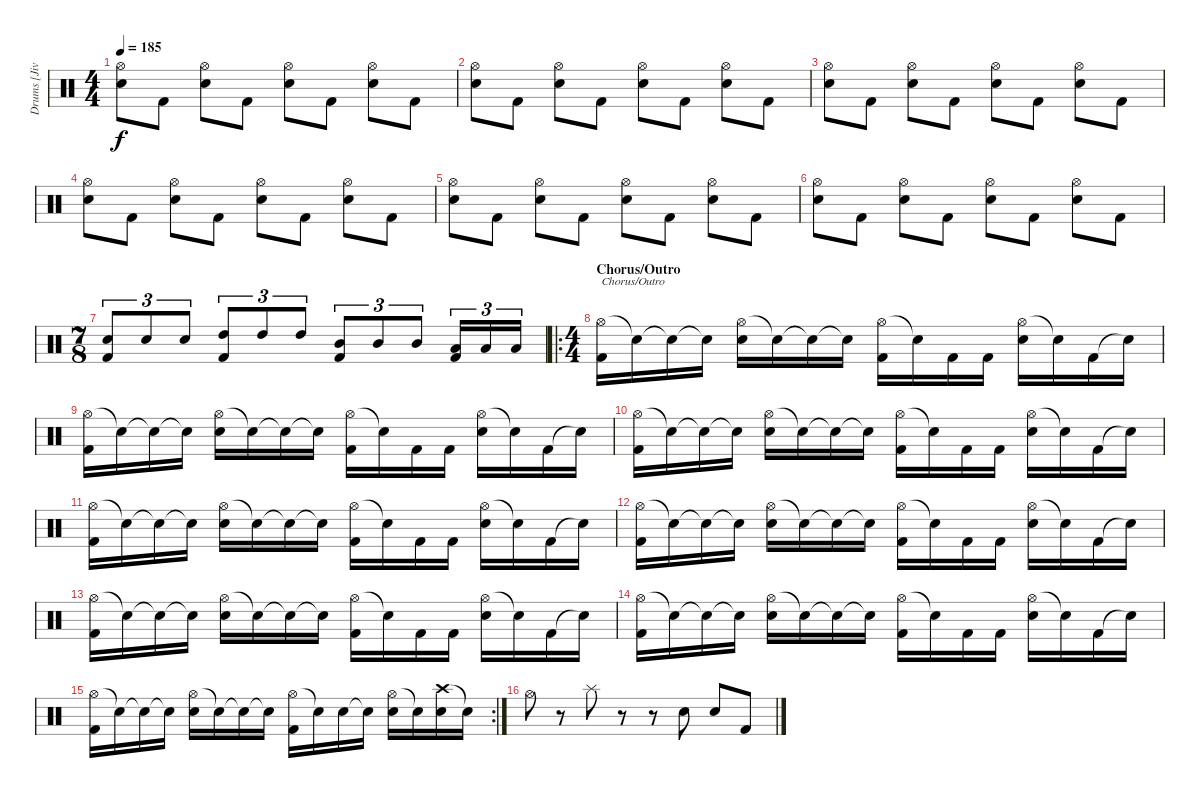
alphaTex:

\track ("Drums [Jivarp]" "Drums [Jiv") {instrument percussion}
\staff {score}
\articulation defaults
\ts (4 4)
\tempo 185
\clef neutral
\ks c
("Hi-Hat (open)" "Electric Snare (hit)").8{dy f} "Kick (hit) 2".8 ("Hi-Hat (open)" "Electric Snare (hit)").8 "Kick (hit) 2".8 ("Hi-Hat (open)" "Electric Snare (hit)").8 "Kick (hit) 2".8 ("Hi-Hat (open)" "Electric Snare (hit)").8 "Kick (hit) 2".8 |
("Hi-Hat (open)" "Electric Snare (hit)").8 "Kick (hit) 2".8 ("Hi-Hat (open)" "Electric Snare (hit)").8 "Kick (hit) 2".8 ("Hi-Hat (open)" "Electric Snare (hit)").8 "Kick (hit) 2".8 ("Hi-Hat (open)" "Electric Snare (hit)").8 "Kick (hit) 2".8 |
("Hi-Hat (open)" "Electric Snare (hit)").8 "Kick (hit) 2".8 ("Hi-Hat (open)" "Electric Snare (hit)").8 "Kick (hit) 2".8 ("Hi-Hat (open)" "Electric Snare (hit)").8 "Kick (hit) 2".8 ("Hi-Hat (open)" "Electric Snare (hit)").8 "Kick (hit) 2".8 |
("Hi-Hat (open)" "Electric Snare (hit)").8 "Kick (hit) 2".8 ("Hi-Hat (open)" "Electric Snare (hit)").8 "Kick (hit) 2".8 ("Hi-Hat (open)" "Electric Snare (hit)").8 "Kick (hit) 2".8 ("Hi-Hat (open)" "Electric Snare (hit)").8 "Kick (hit) 2".8 |
("Hi-Hat (open)" "Electric Snare (hit)").8 "Kick (hit) 2".8 ("Hi-Hat (open)" "Electric Snare (hit)").8 "Kick (hit) 2".8 ("Hi-Hat (open)" "Electric Snare (hit)").8 "Kick (hit) 2".8 ("Hi-Hat (open)" "Electric Snare (hit)").8 "Kick (hit) 2".8 |
("Hi-Hat (open)" "Electric Snare (hit)").8 "Kick (hit) 2".8 ("Hi-Hat (open)" "Electric Snare (hit)").8 "Kick (hit) 2".8 ("Hi-Hat (open)" "Electric Snare (hit)").8 "Kick (hit) 2".8 ("Hi-Hat (open)" "Electric Snare (hit)").8 "Kick (hit) 2".8 |
\ts (7 8)
("Electric Snare (hit)" "Kick (hit) 2").8{tu (3 2)} "Electric Snare (hit)".8{tu (3 2)} "Electric Snare (hit)".8{tu (3 2)} ("High Tom (hit)" "Kick (hit) 2").8{tu (3 2)} "High Tom (hit)".8{tu (3 2)} "High Tom (hit)".8{tu (3 2)} ("Mid Tom (hit)" "Kick (hit) 2").8{tu (3 2)} "Mid Tom (hit)".8{tu (3 2)} "Mid Tom (hit)".8{tu (3 2)} ("Low Tom (hit)" "Kick (hit) 2").16{tu (3 2)} "Low Tom (hit)".16{tu (3 2)} "Low Tom (hit)".16{tu (3 2)} |
\ro
\ts (4 4)
\section ("" "Chorus/Outro")
("Hi-Hat (open)" "Kick (hit) 2").16{txt "Chorus/Outro"} "Snare (hit)"{t}.16 "Snare (hit)"{t}.16 "Snare (hit)"{t}.16 ("Hi-Hat (open)" "Electric Snare (hit)").16 "Snare (hit)"{t}.16 "Snare (hit)"{t}.16 "Snare (hit)"{t}.16 ("Hi-Hat (open)" "Kick (hit) 2").16 "Snare (hit)"{t}.16 "Kick (hit) 2".16 "Kick (hit) 2".16 ("Hi-Hat (open)" "Electric Snare (hit)").16 "Snare (hit)"{t}.16 "Kick (hit) 2".16 "Snare (hit)"{t}.16 |
("Hi-Hat (open)" "Kick (hit) 2").16 "Snare (hit)"{t}.16 "Snare (hit)"{t}.16 "Snare (hit)"{t}.16 ("Hi-Hat (open)" "Electric Snare (hit)").16 "Snare (hit)"{t}.16 "Snare (hit)"{t}.16 "Snare (hit)"{t}.16 ("Hi-Hat (open)" "Kick (hit) 2").16 "Snare (hit)"{t}.16 "Kick (hit) 2".16 "Kick (hit) 2".16 ("Hi-Hat (open)" "Electric Snare (hit)").16 "Snare (hit)"{t}.16 "Kick (hit) 2".16 "Snare (hit)"{t}.16 |
("Hi-Hat (open)" "Kick (hit) 2").16 "Snare (hit)"{t}.16 "Snare (hit)"{t}.16 "Snare (hit)"{t}.16 ("Hi-Hat (open)" "Electric Snare (hit)").16 "Snare (hit)"{t}.16 "Snare (hit)"{t}.16 "Snare (hit)"{t}.16 ("Hi-Hat (open)" "Kick (hit) 2").16 "Snare (hit)"{t}.16 "Kick (hit) 2".16 "Kick (hit) 2".16 ("Hi-Hat (open)" "Electric Snare (hit)").16 "Snare (hit)"{t}.16 "Kick (hit) 2".16 "Snare (hit)"{t}.16 |
("Hi-Hat (open)" "Kick (hit) 2").16 "Snare (hit)"{t}.16 "Snare (hit)"{t}.16 "Snare (hit)"{t}.16 ("Hi-Hat (open)" "Electric Snare (hit)").16 "Snare (hit)"{t}.16 "Snare (hit)"{t}.16 "Snare (hit)"{t}.16 ("Hi-Hat (open)" "Kick (hit) 2").16 "Snare (hit)"{t}.16 "Kick (hit) 2".16 "Kick (hit) 2".16 ("Hi-Hat (open)" "Electric Snare (hit)").16 "Snare (hit)"{t}.16 "Kick (hit) 2".16 "Snare (hit)"{t}.16 |
("Hi-Hat (open)" "Kick (hit) 2").16 "Snare (hit)"{t}.16 "Snare (hit)"{t}.16 "Snare (hit)"{t}.16 ("Hi-Hat (open)" "Electric Snare (hit)").16 "Snare (hit)"{t}.16 "Snare (hit)"{t}.16 "Snare (hit)"{t}.16 ("Hi-Hat (open)" "Kick (hit) 2").16 "Snare (hit)"{t}.16 "Kick (hit) 2".16 "Kick (hit) 2".16 ("Hi-Hat (open)" "Electric Snare (hit)").16 "Snare (hit)"{t}.16 "Kick (hit) 2".16 "Snare (hit)"{t}.16 |
("Hi-Hat (open)" "Kick (hit) 2").16 "Snare (hit)"{t}.16 "Snare (hit)"{t}.16 "Snare (hit)"{t}.16 ("Hi-Hat (open)" "Electric Snare (hit)").16 "Snare (hit)"{t}.16 "Snare (hit)"{t}.16 "Snare (hit)"{t}.16 ("Hi-Hat (open)" "Kick (hit) 2").16 "Snare (hit)"{t}.16 "Kick (hit) 2".16 "Kick (hit) 2".16 ("Hi-Hat (open)" "Electric Snare (hit)").16 "Snare (hit)"{t}.16 "Kick (hit) 2".16 "Snare (hit)"{t}.16 |
("Hi-Hat (open)" "Kick (hit) 2").16 "Snare (hit)"{t}.16 "Snare (hit)"{t}.16 "Snare (hit)"{t}.16 ("Hi-Hat (open)" "Electric Snare (hit)").16 "Snare (hit)"{t}.16 "Snare (hit)"{t}.16 "Snare (hit)"{t}.16 ("Hi-Hat (open)" "Kick (hit) 2").16 "Snare (hit)"{t}.16 "Kick (hit) 2".16 "Kick (hit) 2".16 ("Hi-Hat (open)" "Electric Snare (hit)").16 "Snare (hit)"{t}.16 "Kick (hit) 2".16 "Snare (hit)"{t}.16 |
\rc 2
("Hi-Hat (open)" "Kick (hit) 2").16 "Snare (hit)"{t}.16 "Snare (hit)"{t}.16 "Snare (hit)"{t}.16 ("Hi-Hat (open)" "Electric Snare (hit)").16 "Snare (hit)"{t}.16 "Snare (hit)"{t}.16 "Snare (hit)"{t}.16 ("Hi-Hat (open)" "Kick (hit) 2").16 "Snare (hit)"{t}.16 "Electric Snare (hit)".16 "Snare (hit)"{t}.16 ("Hi-Hat (open)" "Electric Snare (hit)").16 "Snare (hit)"{t}.16 ("Crash high (hit)" "Electric Snare (hit)").16 "Snare (hit)"{t}.16 |
"Hi-Hat (open)".8 r.8 "Splash (hit)".8 r.8 r.8 "Electric Snare (hit)".8 "Electric Snare (hit)".8 "Kick (hit) 2".8
